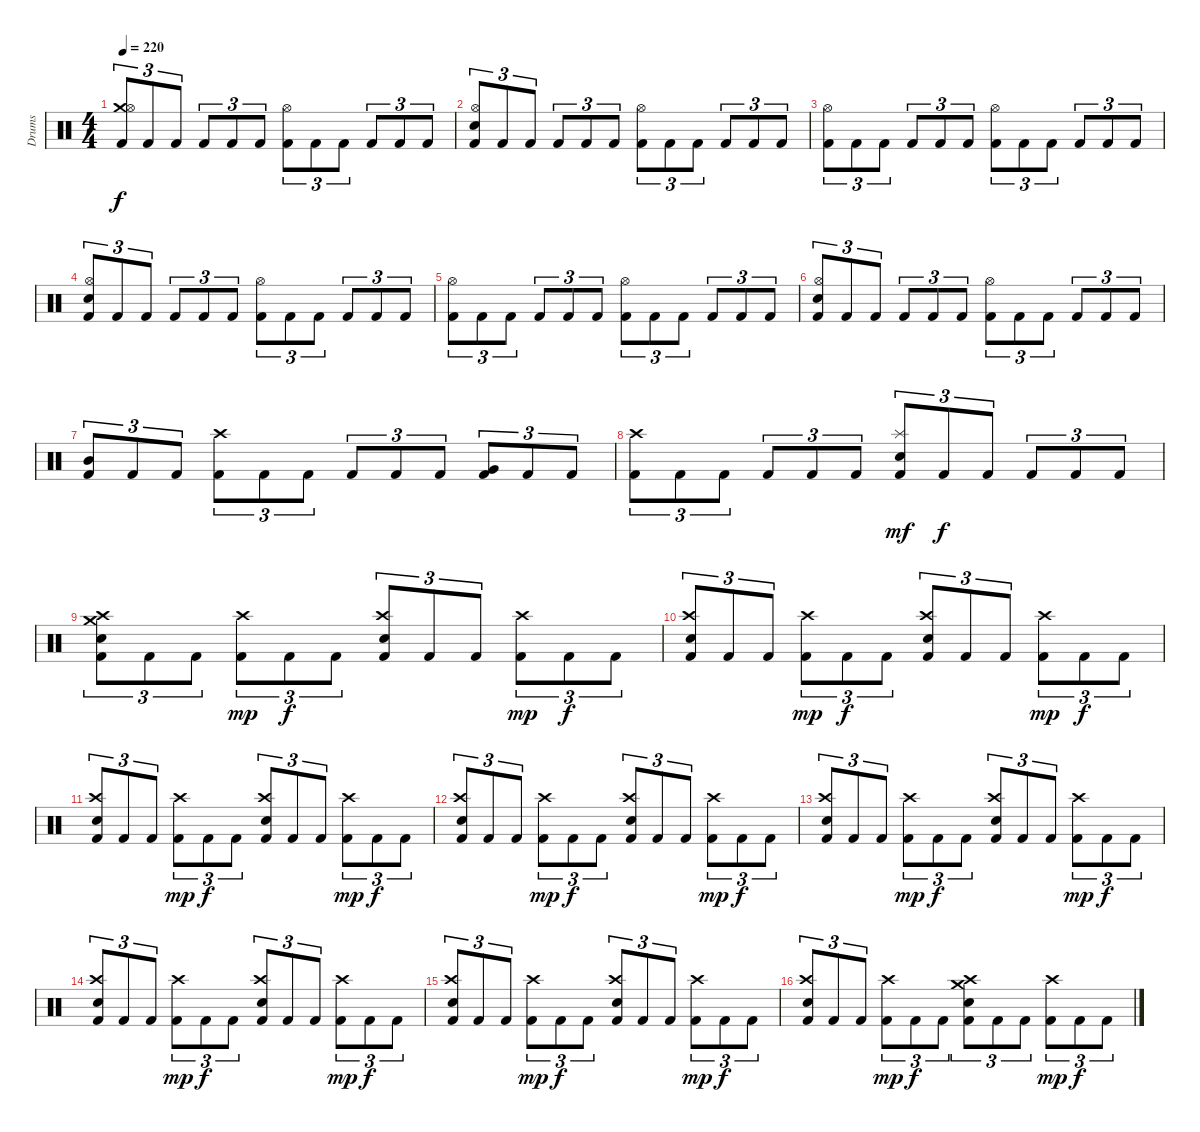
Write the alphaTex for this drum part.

\bracketExtendMode groupsimilarinstruments
\otherSystemsTrackNameOrientation horizontal
\track ("Drumkit" "Drums") {instrument percussion}
\staff {score}
\articulation defaults
\ts (4 4)
\tempo 220
\clef neutral
\ks c
("Crash medium (hit)" "Hi-Hat (open)" "Kick (hit) 2").8{tu (3 2) dy f beam Up} "Kick (hit) 2".8{tu (3 2) beam Up} "Kick (hit) 2".8{tu (3 2) beam Up} "Kick (hit) 2".8{tu (3 2) beam Up} "Kick (hit) 2".8{tu (3 2) beam Up} "Kick (hit) 2".8{tu (3 2) beam Up} ("Hi-Hat (open)" "Kick (hit) 2").8{tu (3 2) beam Down} "Kick (hit) 2".8{tu (3 2) beam Down} "Kick (hit) 2".8{tu (3 2) beam Down} "Kick (hit) 2".8{tu (3 2) beam Up} "Kick (hit) 2".8{tu (3 2) beam Up} "Kick (hit) 2".8{tu (3 2) beam Up} |
("Hi-Hat (open)" "Snare (hit) 2" "Kick (hit) 2").8{tu (3 2) beam Up} "Kick (hit) 2".8{tu (3 2) beam Up} "Kick (hit) 2".8{tu (3 2) beam Up} "Kick (hit) 2".8{tu (3 2) beam Up} "Kick (hit) 2".8{tu (3 2) beam Up} "Kick (hit) 2".8{tu (3 2) beam Up} ("Hi-Hat (open)" "Kick (hit) 2").8{tu (3 2) beam Down} "Kick (hit) 2".8{tu (3 2) beam Down} "Kick (hit) 2".8{tu (3 2) beam Down} "Kick (hit) 2".8{tu (3 2) beam Up} "Kick (hit) 2".8{tu (3 2) beam Up} "Kick (hit) 2".8{tu (3 2) beam Up} |
("Hi-Hat (open)" "Kick (hit) 2").8{tu (3 2) beam Down} "Kick (hit) 2".8{tu (3 2) beam Down} "Kick (hit) 2".8{tu (3 2) beam Down} "Kick (hit) 2".8{tu (3 2) beam Up} "Kick (hit) 2".8{tu (3 2) beam Up} "Kick (hit) 2".8{tu (3 2) beam Up} ("Hi-Hat (open)" "Kick (hit) 2").8{tu (3 2) beam Down} "Kick (hit) 2".8{tu (3 2) beam Down} "Kick (hit) 2".8{tu (3 2) beam Down} "Kick (hit) 2".8{tu (3 2) beam Up} "Kick (hit) 2".8{tu (3 2) beam Up} "Kick (hit) 2".8{tu (3 2) beam Up} |
("Hi-Hat (open)" "Snare (hit) 2" "Kick (hit) 2").8{tu (3 2) beam Up} "Kick (hit) 2".8{tu (3 2) beam Up} "Kick (hit) 2".8{tu (3 2) beam Up} "Kick (hit) 2".8{tu (3 2) beam Up} "Kick (hit) 2".8{tu (3 2) beam Up} "Kick (hit) 2".8{tu (3 2) beam Up} ("Hi-Hat (open)" "Kick (hit) 2").8{tu (3 2) beam Down} "Kick (hit) 2".8{tu (3 2) beam Down} "Kick (hit) 2".8{tu (3 2) beam Down} "Kick (hit) 2".8{tu (3 2) beam Up} "Kick (hit) 2".8{tu (3 2) beam Up} "Kick (hit) 2".8{tu (3 2) beam Up} |
("Hi-Hat (open)" "Kick (hit) 2").8{tu (3 2) beam Down} "Kick (hit) 2".8{tu (3 2) beam Down} "Kick (hit) 2".8{tu (3 2) beam Down} "Kick (hit) 2".8{tu (3 2) beam Up} "Kick (hit) 2".8{tu (3 2) beam Up} "Kick (hit) 2".8{tu (3 2) beam Up} ("Hi-Hat (open)" "Kick (hit) 2").8{tu (3 2) beam Down} "Kick (hit) 2".8{tu (3 2) beam Down} "Kick (hit) 2".8{tu (3 2) beam Down} "Kick (hit) 2".8{tu (3 2) beam Up} "Kick (hit) 2".8{tu (3 2) beam Up} "Kick (hit) 2".8{tu (3 2) beam Up} |
("Hi-Hat (open)" "Snare (hit) 2" "Kick (hit) 2").8{tu (3 2) beam Up} "Kick (hit) 2".8{tu (3 2) beam Up} "Kick (hit) 2".8{tu (3 2) beam Up} "Kick (hit) 2".8{tu (3 2) beam Up} "Kick (hit) 2".8{tu (3 2) beam Up} "Kick (hit) 2".8{tu (3 2) beam Up} ("Hi-Hat (open)" "Kick (hit) 2").8{tu (3 2) beam Down} "Kick (hit) 2".8{tu (3 2) beam Down} "Kick (hit) 2".8{tu (3 2) beam Down} "Kick (hit) 2".8{tu (3 2) beam Up} "Kick (hit) 2".8{tu (3 2) beam Up} "Kick (hit) 2".8{tu (3 2) beam Up} |
("Mid Tom (hit)" "Kick (hit) 2").8{tu (3 2) beam Up} "Kick (hit) 2".8{tu (3 2) beam Up} "Kick (hit) 2".8{tu (3 2) beam Up} ("Crash high (hit)" "Kick (hit) 2").8{tu (3 2) beam Down} "Kick (hit) 2".8{tu (3 2) beam Down} "Kick (hit) 2".8{tu (3 2) beam Down} "Kick (hit) 2".8{tu (3 2) beam Up} "Kick (hit) 2".8{tu (3 2) beam Up} "Kick (hit) 2".8{tu (3 2) beam Up} ("Very Low Tom (hit)" "Kick (hit) 2").8{tu (3 2) beam Up} "Kick (hit) 2".8{tu (3 2) beam Up} "Kick (hit) 2".8{tu (3 2) beam Up} |
("Crash high (hit)" "Kick (hit) 2").8{tu (3 2) beam Down} "Kick (hit) 2".8{tu (3 2) beam Down} "Kick (hit) 2".8{tu (3 2) beam Down} "Kick (hit) 2".8{tu (3 2) beam Up} "Kick (hit) 2".8{tu (3 2) beam Up} "Kick (hit) 2".8{tu (3 2) beam Up} ("Splash (hit)" "Snare (hit) 2" "Kick (hit) 2").8{tu (3 2) dy mf beam Up} "Kick (hit) 2".8{tu (3 2) dy f beam Up} "Kick (hit) 2".8{tu (3 2) beam Up} "Kick (hit) 2".8{tu (3 2) beam Up} "Kick (hit) 2".8{tu (3 2) beam Up} "Kick (hit) 2".8{tu (3 2) beam Up} |
("Crash medium (hit)" "Crash high (hit)" "Snare (hit) 2" "Kick (hit) 2").8{tu (3 2) beam Down} "Kick (hit) 2".8{tu (3 2) beam Down} "Kick (hit) 2".8{tu (3 2) beam Down} ("Crash high (hit)" "Kick (hit) 2").8{tu (3 2) dy mp beam Down} "Kick (hit) 2".8{tu (3 2) dy f beam Down} "Kick (hit) 2".8{tu (3 2) beam Down} ("Crash high (hit)" "Snare (hit) 2" "Kick (hit) 2").8{tu (3 2) beam Up} "Kick (hit) 2".8{tu (3 2) beam Up} "Kick (hit) 2".8{tu (3 2) beam Up} ("Crash high (hit)" "Kick (hit) 2").8{tu (3 2) dy mp beam Down} "Kick (hit) 2".8{tu (3 2) dy f beam Down} "Kick (hit) 2".8{tu (3 2) beam Down} |
("Crash high (hit)" "Snare (hit) 2" "Kick (hit) 2").8{tu (3 2) beam Up} "Kick (hit) 2".8{tu (3 2) beam Up} "Kick (hit) 2".8{tu (3 2) beam Up} ("Crash high (hit)" "Kick (hit) 2").8{tu (3 2) dy mp beam Down} "Kick (hit) 2".8{tu (3 2) dy f beam Down} "Kick (hit) 2".8{tu (3 2) beam Down} ("Crash high (hit)" "Snare (hit) 2" "Kick (hit) 2").8{tu (3 2) beam Up} "Kick (hit) 2".8{tu (3 2) beam Up} "Kick (hit) 2".8{tu (3 2) beam Up} ("Crash high (hit)" "Kick (hit) 2").8{tu (3 2) dy mp beam Down} "Kick (hit) 2".8{tu (3 2) dy f beam Down} "Kick (hit) 2".8{tu (3 2) beam Down} |
("Crash high (hit)" "Snare (hit) 2" "Kick (hit) 2").8{tu (3 2) beam Up} "Kick (hit) 2".8{tu (3 2) beam Up} "Kick (hit) 2".8{tu (3 2) beam Up} ("Crash high (hit)" "Kick (hit) 2").8{tu (3 2) dy mp beam Down} "Kick (hit) 2".8{tu (3 2) dy f beam Down} "Kick (hit) 2".8{tu (3 2) beam Down} ("Crash high (hit)" "Snare (hit) 2" "Kick (hit) 2").8{tu (3 2) beam Up} "Kick (hit) 2".8{tu (3 2) beam Up} "Kick (hit) 2".8{tu (3 2) beam Up} ("Crash high (hit)" "Kick (hit) 2").8{tu (3 2) dy mp beam Down} "Kick (hit) 2".8{tu (3 2) dy f beam Down} "Kick (hit) 2".8{tu (3 2) beam Down} |
("Crash high (hit)" "Snare (hit) 2" "Kick (hit) 2").8{tu (3 2) beam Up} "Kick (hit) 2".8{tu (3 2) beam Up} "Kick (hit) 2".8{tu (3 2) beam Up} ("Crash high (hit)" "Kick (hit) 2").8{tu (3 2) dy mp beam Down} "Kick (hit) 2".8{tu (3 2) dy f beam Down} "Kick (hit) 2".8{tu (3 2) beam Down} ("Crash high (hit)" "Snare (hit) 2" "Kick (hit) 2").8{tu (3 2) beam Up} "Kick (hit) 2".8{tu (3 2) beam Up} "Kick (hit) 2".8{tu (3 2) beam Up} ("Crash high (hit)" "Kick (hit) 2").8{tu (3 2) dy mp beam Down} "Kick (hit) 2".8{tu (3 2) dy f beam Down} "Kick (hit) 2".8{tu (3 2) beam Down} |
("Crash high (hit)" "Snare (hit) 2" "Kick (hit) 2").8{tu (3 2) beam Up} "Kick (hit) 2".8{tu (3 2) beam Up} "Kick (hit) 2".8{tu (3 2) beam Up} ("Crash high (hit)" "Kick (hit) 2").8{tu (3 2) dy mp beam Down} "Kick (hit) 2".8{tu (3 2) dy f beam Down} "Kick (hit) 2".8{tu (3 2) beam Down} ("Crash high (hit)" "Snare (hit) 2" "Kick (hit) 2").8{tu (3 2) beam Up} "Kick (hit) 2".8{tu (3 2) beam Up} "Kick (hit) 2".8{tu (3 2) beam Up} ("Crash high (hit)" "Kick (hit) 2").8{tu (3 2) dy mp beam Down} "Kick (hit) 2".8{tu (3 2) dy f beam Down} "Kick (hit) 2".8{tu (3 2) beam Down} |
("Crash high (hit)" "Snare (hit) 2" "Kick (hit) 2").8{tu (3 2) beam Up} "Kick (hit) 2".8{tu (3 2) beam Up} "Kick (hit) 2".8{tu (3 2) beam Up} ("Crash high (hit)" "Kick (hit) 2").8{tu (3 2) dy mp beam Down} "Kick (hit) 2".8{tu (3 2) dy f beam Down} "Kick (hit) 2".8{tu (3 2) beam Down} ("Crash high (hit)" "Snare (hit) 2" "Kick (hit) 2").8{tu (3 2) beam Up} "Kick (hit) 2".8{tu (3 2) beam Up} "Kick (hit) 2".8{tu (3 2) beam Up} ("Crash high (hit)" "Kick (hit) 2").8{tu (3 2) dy mp beam Down} "Kick (hit) 2".8{tu (3 2) dy f beam Down} "Kick (hit) 2".8{tu (3 2) beam Down} |
("Crash high (hit)" "Snare (hit) 2" "Kick (hit) 2").8{tu (3 2) beam Up} "Kick (hit) 2".8{tu (3 2) beam Up} "Kick (hit) 2".8{tu (3 2) beam Up} ("Crash high (hit)" "Kick (hit) 2").8{tu (3 2) dy mp beam Down} "Kick (hit) 2".8{tu (3 2) dy f beam Down} "Kick (hit) 2".8{tu (3 2) beam Down} ("Crash high (hit)" "Snare (hit) 2" "Kick (hit) 2").8{tu (3 2) beam Up} "Kick (hit) 2".8{tu (3 2) beam Up} "Kick (hit) 2".8{tu (3 2) beam Up} ("Crash high (hit)" "Kick (hit) 2").8{tu (3 2) dy mp beam Down} "Kick (hit) 2".8{tu (3 2) dy f beam Down} "Kick (hit) 2".8{tu (3 2) beam Down} |
("Crash high (hit)" "Snare (hit) 2" "Kick (hit) 2").8{tu (3 2) beam Up} "Kick (hit) 2".8{tu (3 2) beam Up} "Kick (hit) 2".8{tu (3 2) beam Up} ("Crash high (hit)" "Kick (hit) 2").8{tu (3 2) dy mp beam Down} "Kick (hit) 2".8{tu (3 2) dy f beam Down} "Kick (hit) 2".8{tu (3 2) beam Down} ("Crash medium (hit)" "Crash high (hit)" "Snare (hit) 2" "Kick (hit) 2").8{tu (3 2) beam Down} "Kick (hit) 2".8{tu (3 2) beam Down} "Kick (hit) 2".8{tu (3 2) beam Down} ("Crash high (hit)" "Kick (hit) 2").8{tu (3 2) dy mp beam Down} "Kick (hit) 2".8{tu (3 2) dy f beam Down} "Kick (hit) 2".8{tu (3 2) beam Down}
